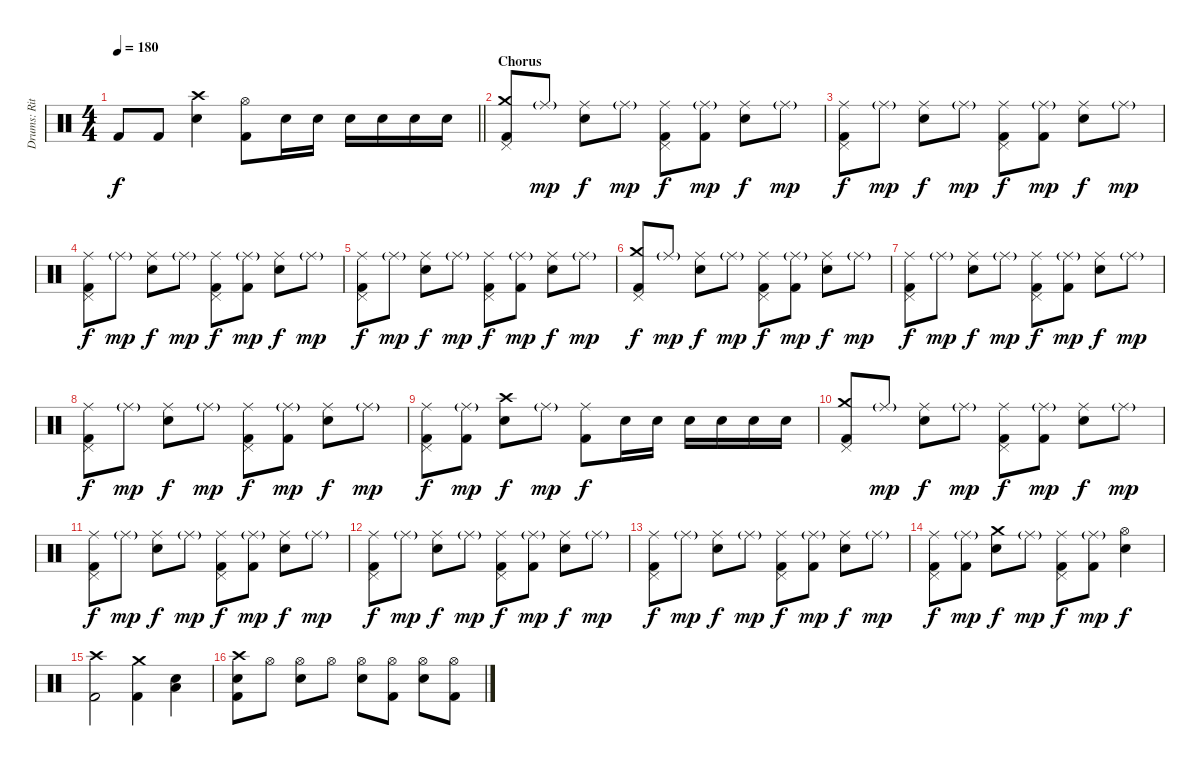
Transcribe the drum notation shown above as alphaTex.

\track ("Drums: Ritsu Tainaka" "Drums: Rit") {instrument percussion}
\staff {score}
\articulation defaults
\ts (4 4)
\tempo 180
\clef neutral
\barLineRight lightlight
\ks c "Kick (hit) 2".8{dy f} "Kick (hit) 2".8
("Crash high (hit)" "Electric Snare (hit)").4 ("Hi-Hat (open)" "Kick (hit) 2").8 "Electric Snare (hit)".16 "Electric Snare (hit)".16 "Electric Snare (hit)".16 "Electric Snare (hit)".16 "Electric Snare (hit)".16 "Electric Snare (hit)".16 |
\section ("" "Chorus")
("Crash medium (hit)" "Pedal Hi-Hat (hit)" "Kick (hit) 2").8 "Ride (middle)"{g}.8{dy mp} ("Ride (middle)" "Electric Snare (hit)").8{dy f} "Ride (middle)"{g}.8{dy mp} ("Ride (middle)" "Pedal Hi-Hat (hit)" "Kick (hit) 2").8{dy f} ("Ride (middle)"{g} "Kick (hit) 2").8{dy mp} ("Ride (middle)" "Electric Snare (hit)").8{dy f} "Ride (middle)"{g}.8{dy mp} |
("Ride (middle)" "Pedal Hi-Hat (hit)" "Kick (hit) 2").8{dy f} "Ride (middle)"{g}.8{dy mp} ("Ride (middle)" "Electric Snare (hit)").8{dy f} "Ride (middle)"{g}.8{dy mp} ("Ride (middle)" "Pedal Hi-Hat (hit)" "Kick (hit) 2").8{dy f} ("Ride (middle)"{g} "Kick (hit) 2").8{dy mp} ("Ride (middle)" "Electric Snare (hit)").8{dy f} "Ride (middle)"{g}.8{dy mp} |
("Ride (middle)" "Pedal Hi-Hat (hit)" "Kick (hit) 2").8{dy f} "Ride (middle)"{g}.8{dy mp} ("Ride (middle)" "Electric Snare (hit)").8{dy f} "Ride (middle)"{g}.8{dy mp} ("Ride (middle)" "Pedal Hi-Hat (hit)" "Kick (hit) 2").8{dy f} ("Ride (middle)"{g} "Kick (hit) 2").8{dy mp} ("Ride (middle)" "Electric Snare (hit)").8{dy f} "Ride (middle)"{g}.8{dy mp} |
("Ride (middle)" "Pedal Hi-Hat (hit)" "Kick (hit) 2").8{dy f} "Ride (middle)"{g}.8{dy mp} ("Ride (middle)" "Electric Snare (hit)").8{dy f} "Ride (middle)"{g}.8{dy mp} ("Ride (middle)" "Pedal Hi-Hat (hit)" "Kick (hit) 2").8{dy f} ("Ride (middle)"{g} "Kick (hit) 2").8{dy mp} ("Ride (middle)" "Electric Snare (hit)").8{dy f} "Ride (middle)"{g}.8{dy mp} |
("Crash medium (hit)" "Pedal Hi-Hat (hit)" "Kick (hit) 2").8{dy f} "Ride (middle)"{g}.8{dy mp} ("Ride (middle)" "Electric Snare (hit)").8{dy f} "Ride (middle)"{g}.8{dy mp} ("Ride (middle)" "Pedal Hi-Hat (hit)" "Kick (hit) 2").8{dy f} ("Ride (middle)"{g} "Kick (hit) 2").8{dy mp} ("Ride (middle)" "Electric Snare (hit)").8{dy f} "Ride (middle)"{g}.8{dy mp} |
("Ride (middle)" "Pedal Hi-Hat (hit)" "Kick (hit) 2").8{dy f} "Ride (middle)"{g}.8{dy mp} ("Ride (middle)" "Electric Snare (hit)").8{dy f} "Ride (middle)"{g}.8{dy mp} ("Ride (middle)" "Pedal Hi-Hat (hit)" "Kick (hit) 2").8{dy f} ("Ride (middle)"{g} "Kick (hit) 2").8{dy mp} ("Ride (middle)" "Electric Snare (hit)").8{dy f} "Ride (middle)"{g}.8{dy mp} |
("Ride (middle)" "Pedal Hi-Hat (hit)" "Kick (hit) 2").8{dy f} "Ride (middle)"{g}.8{dy mp} ("Ride (middle)" "Electric Snare (hit)").8{dy f} "Ride (middle)"{g}.8{dy mp} ("Ride (middle)" "Pedal Hi-Hat (hit)" "Kick (hit) 2").8{dy f} ("Ride (middle)"{g} "Kick (hit) 2").8{dy mp} ("Ride (middle)" "Electric Snare (hit)").8{dy f} "Ride (middle)"{g}.8{dy mp} |
("Ride (middle)" "Pedal Hi-Hat (hit)" "Kick (hit) 2").8{dy f} ("Ride (middle)"{g} "Kick (hit) 2").8{dy mp} ("Crash high (hit)" "Electric Snare (hit)").8{dy f} "Ride (middle)"{g}.8{dy mp} ("Ride (middle)" "Kick (hit) 2").8{dy f} "Electric Snare (hit)".16 "Electric Snare (hit)".16 "Electric Snare (hit)".16 "Electric Snare (hit)".16 "Electric Snare (hit)".16 "Electric Snare (hit)".16 |
("Crash medium (hit)" "Pedal Hi-Hat (hit)" "Kick (hit) 2").8 "Ride (middle)"{g}.8{dy mp} ("Ride (middle)" "Electric Snare (hit)").8{dy f} "Ride (middle)"{g}.8{dy mp} ("Ride (middle)" "Pedal Hi-Hat (hit)" "Kick (hit) 2").8{dy f} ("Ride (middle)"{g} "Kick (hit) 2").8{dy mp} ("Ride (middle)" "Electric Snare (hit)").8{dy f} "Ride (middle)"{g}.8{dy mp} |
("Ride (middle)" "Pedal Hi-Hat (hit)" "Kick (hit) 2").8{dy f} "Ride (middle)"{g}.8{dy mp} ("Ride (middle)" "Electric Snare (hit)").8{dy f} "Ride (middle)"{g}.8{dy mp} ("Ride (middle)" "Pedal Hi-Hat (hit)" "Kick (hit) 2").8{dy f} ("Ride (middle)"{g} "Kick (hit) 2").8{dy mp} ("Ride (middle)" "Electric Snare (hit)").8{dy f} "Ride (middle)"{g}.8{dy mp} |
("Ride (middle)" "Pedal Hi-Hat (hit)" "Kick (hit) 2").8{dy f} "Ride (middle)"{g}.8{dy mp} ("Ride (middle)" "Electric Snare (hit)").8{dy f} "Ride (middle)"{g}.8{dy mp} ("Ride (middle)" "Pedal Hi-Hat (hit)" "Kick (hit) 2").8{dy f} ("Ride (middle)"{g} "Kick (hit) 2").8{dy mp} ("Ride (middle)" "Electric Snare (hit)").8{dy f} "Ride (middle)"{g}.8{dy mp} |
("Ride (middle)" "Pedal Hi-Hat (hit)" "Kick (hit) 2").8{dy f} "Ride (middle)"{g}.8{dy mp} ("Ride (middle)" "Electric Snare (hit)").8{dy f} "Ride (middle)"{g}.8{dy mp} ("Ride (middle)" "Pedal Hi-Hat (hit)" "Kick (hit) 2").8{dy f} ("Ride (middle)"{g} "Kick (hit) 2").8{dy mp} ("Ride (middle)" "Electric Snare (hit)").8{dy f} "Ride (middle)"{g}.8{dy mp} |
("Ride (middle)" "Pedal Hi-Hat (hit)" "Kick (hit) 2").8{dy f} ("Ride (middle)"{g} "Kick (hit) 2").8{dy mp} ("Crash medium (hit)" "Electric Snare (hit)").8{dy f} "Ride (middle)"{g}.8{dy mp} ("Ride (middle)" "Pedal Hi-Hat (hit)" "Kick (hit) 2").8{dy f} ("Ride (middle)"{g} "Kick (hit) 2").8{dy mp} ("Hi-Hat (open)" "Electric Snare (hit)").4{dy f} |
("Crash high (hit)" "Kick (hit) 2").2 ("Crash medium (hit)" "Kick (hit) 2").4 ("Electric Snare (hit)" "Low Floor Tom (hit)").4 |
("Crash high (hit)" "Electric Snare (hit)" "Kick (hit) 2").8 "Hi-Hat (open)".8 ("Hi-Hat (open)" "Electric Snare (hit)").8 "Hi-Hat (open)".8 ("Hi-Hat (open)" "Electric Snare (hit)").8 ("Hi-Hat (open)" "Kick (hit) 2").8 ("Hi-Hat (open)" "Electric Snare (hit)").8 ("Hi-Hat (open)" "Kick (hit) 2").8
